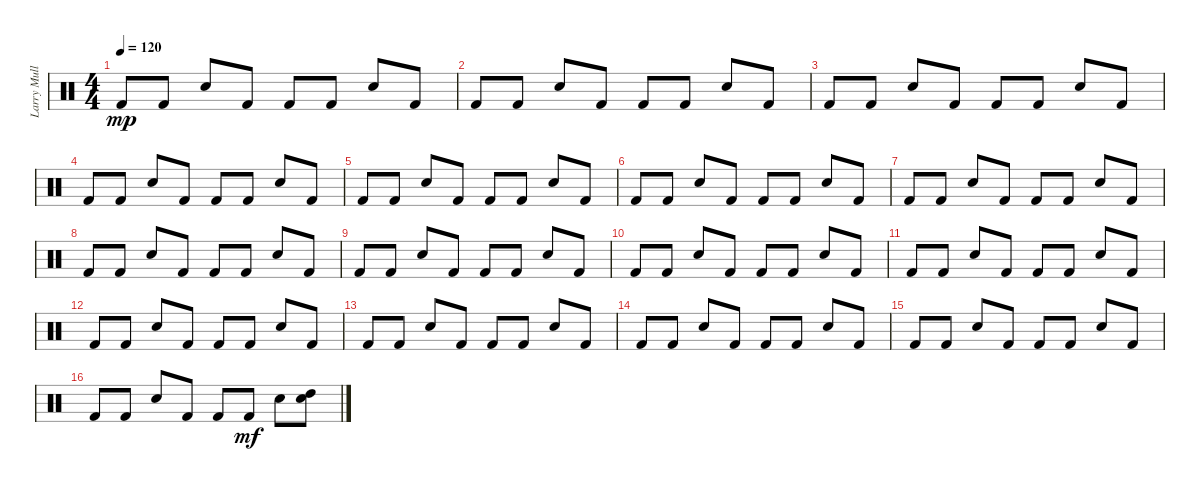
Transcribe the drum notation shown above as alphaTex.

\track ("Larry Mullen Jr" "Larry Mull") {instrument percussion}
\staff {score}
\articulation defaults
\ts (4 4)
\tempo 120
\clef neutral
\ks c "Kick (hit) 2".8{dy mp} "Kick (hit) 2".8 "Snare (hit) 2".8 "Kick (hit) 2".8 "Kick (hit) 2".8 "Kick (hit) 2".8 "Snare (hit) 2".8 "Kick (hit) 2".8
|
"Kick (hit) 2".8 "Kick (hit) 2".8 "Snare (hit) 2".8 "Kick (hit) 2".8 "Kick (hit) 2".8 "Kick (hit) 2".8 "Snare (hit) 2".8 "Kick (hit) 2".8 |
"Kick (hit) 2".8 "Kick (hit) 2".8 "Snare (hit) 2".8 "Kick (hit) 2".8 "Kick (hit) 2".8 "Kick (hit) 2".8 "Snare (hit) 2".8 "Kick (hit) 2".8 |
"Kick (hit) 2".8 "Kick (hit) 2".8 "Snare (hit) 2".8 "Kick (hit) 2".8 "Kick (hit) 2".8 "Kick (hit) 2".8 "Snare (hit) 2".8 "Kick (hit) 2".8 |
"Kick (hit) 2".8 "Kick (hit) 2".8 "Snare (hit) 2".8 "Kick (hit) 2".8 "Kick (hit) 2".8 "Kick (hit) 2".8 "Snare (hit) 2".8 "Kick (hit) 2".8 |
"Kick (hit) 2".8 "Kick (hit) 2".8 "Snare (hit) 2".8 "Kick (hit) 2".8 "Kick (hit) 2".8 "Kick (hit) 2".8 "Snare (hit) 2".8 "Kick (hit) 2".8 |
"Kick (hit) 2".8 "Kick (hit) 2".8 "Snare (hit) 2".8 "Kick (hit) 2".8 "Kick (hit) 2".8 "Kick (hit) 2".8 "Snare (hit) 2".8 "Kick (hit) 2".8 |
"Kick (hit) 2".8 "Kick (hit) 2".8 "Snare (hit) 2".8 "Kick (hit) 2".8 "Kick (hit) 2".8 "Kick (hit) 2".8 "Snare (hit) 2".8 "Kick (hit) 2".8 |
"Kick (hit) 2".8 "Kick (hit) 2".8 "Snare (hit) 2".8 "Kick (hit) 2".8 "Kick (hit) 2".8 "Kick (hit) 2".8 "Snare (hit) 2".8 "Kick (hit) 2".8 |
"Kick (hit) 2".8 "Kick (hit) 2".8 "Snare (hit) 2".8 "Kick (hit) 2".8 "Kick (hit) 2".8 "Kick (hit) 2".8 "Snare (hit) 2".8 "Kick (hit) 2".8 |
"Kick (hit) 2".8 "Kick (hit) 2".8 "Snare (hit) 2".8 "Kick (hit) 2".8 "Kick (hit) 2".8 "Kick (hit) 2".8 "Snare (hit) 2".8 "Kick (hit) 2".8 |
"Kick (hit) 2".8 "Kick (hit) 2".8 "Snare (hit) 2".8 "Kick (hit) 2".8 "Kick (hit) 2".8 "Kick (hit) 2".8 "Snare (hit) 2".8 "Kick (hit) 2".8 |
"Kick (hit) 2".8 "Kick (hit) 2".8 "Snare (hit) 2".8 "Kick (hit) 2".8 "Kick (hit) 2".8 "Kick (hit) 2".8 "Snare (hit) 2".8 "Kick (hit) 2".8 |
"Kick (hit) 2".8 "Kick (hit) 2".8 "Snare (hit) 2".8 "Kick (hit) 2".8 "Kick (hit) 2".8 "Kick (hit) 2".8 "Snare (hit) 2".8 "Kick (hit) 2".8 |
"Kick (hit) 2".8 "Kick (hit) 2".8 "Snare (hit) 2".8 "Kick (hit) 2".8 "Kick (hit) 2".8 "Kick (hit) 2".8 "Snare (hit) 2".8 "Kick (hit) 2".8 |
"Kick (hit) 2".8 "Kick (hit) 2".8 "Snare (hit) 2".8 "Kick (hit) 2".8 "Kick (hit) 2".8 "Kick (hit) 2".8{dy mf} "Snare (hit) 2".8 ("Snare (hit) 2" "High Tom (hit)").8
